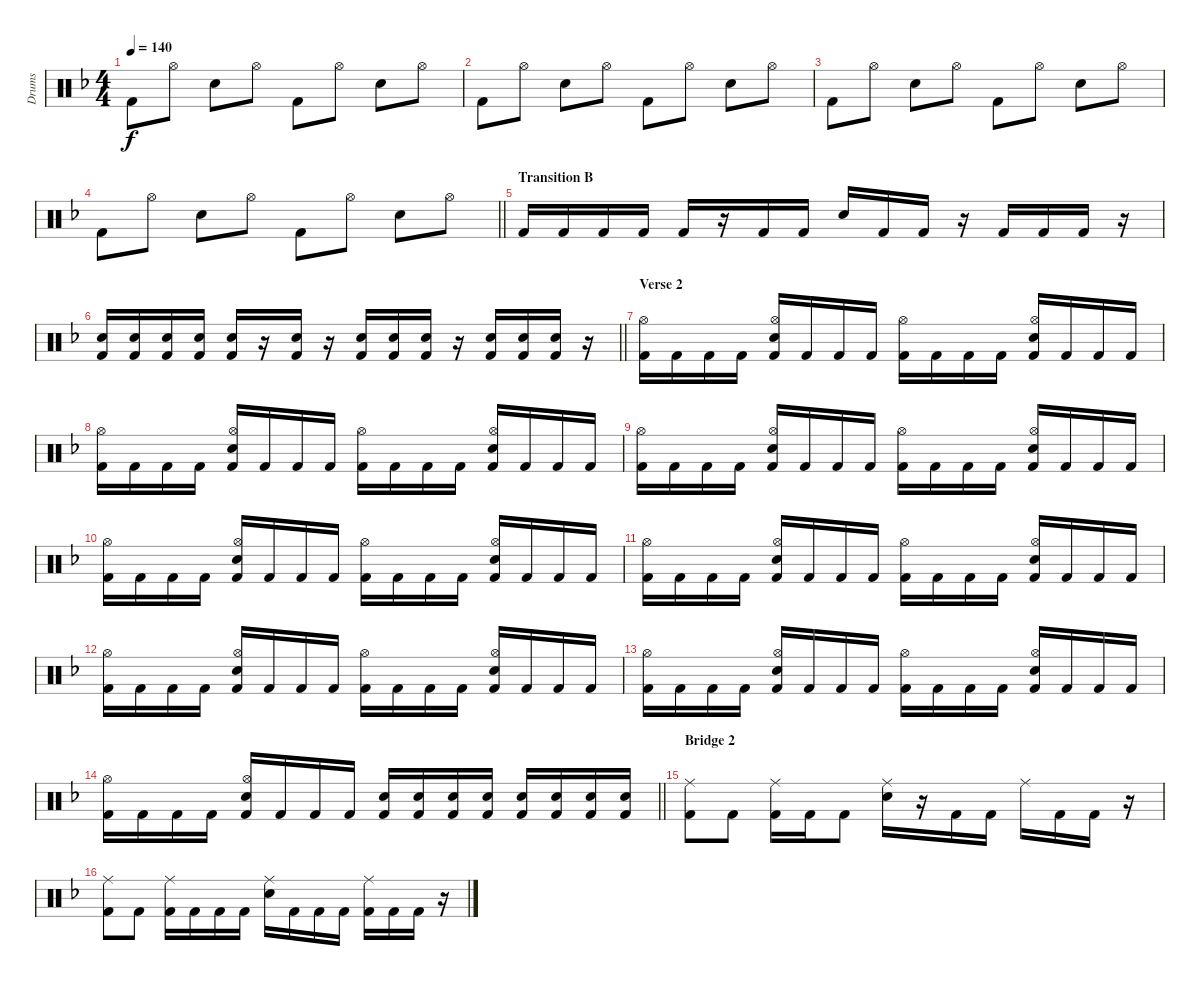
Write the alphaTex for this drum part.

\track ("Drums" "Drums") {instrument percussion}
\staff {score}
\articulation defaults
\ts (4 4)
\tempo 140
\clef neutral
\ks dminor "Kick (hit) 2".8{dy f} "Hi-Hat (open)".8 "Snare (hit) 2".8 "Hi-Hat (open)".8 "Kick (hit) 2".8 "Hi-Hat (open)".8 "Snare (hit) 2".8 "Hi-Hat (open)".8
|
"Kick (hit) 2".8 "Hi-Hat (open)".8 "Snare (hit) 2".8 "Hi-Hat (open)".8 "Kick (hit) 2".8 "Hi-Hat (open)".8 "Snare (hit) 2".8 "Hi-Hat (open)".8 |
"Kick (hit) 2".8 "Hi-Hat (open)".8 "Snare (hit) 2".8 "Hi-Hat (open)".8 "Kick (hit) 2".8 "Hi-Hat (open)".8 "Snare (hit) 2".8 "Hi-Hat (open)".8 |
\barLineRight lightlight "Kick (hit) 2".8 "Hi-Hat (open)".8 "Snare (hit) 2".8 "Hi-Hat (open)".8 "Kick (hit) 2".8 "Hi-Hat (open)".8 "Snare (hit) 2".8 "Hi-Hat (open)".8
|
\section ("" "Transition B")
"Kick (hit) 2".16 "Kick (hit) 2".16 "Kick (hit) 2".16 "Kick (hit) 2".16 "Kick (hit) 2".16 r.16 "Kick (hit) 2".16 "Kick (hit) 2".16 "Snare (hit) 2".16 "Kick (hit) 2".16 "Kick (hit) 2".16 r.16 "Kick (hit) 2".16 "Kick (hit) 2".16 "Kick (hit) 2".16 r.16 |
\barLineRight lightlight
("Snare (hit) 2" "Kick (hit) 2").16 ("Snare (hit) 2" "Kick (hit) 2").16 ("Snare (hit) 2" "Kick (hit) 2").16 ("Snare (hit) 2" "Kick (hit) 2").16 ("Snare (hit) 2" "Kick (hit) 2").16 r.16 ("Snare (hit) 2" "Kick (hit) 2").16 r.16 ("Snare (hit) 2" "Kick (hit) 2").16 ("Snare (hit) 2" "Kick (hit) 2").16 ("Snare (hit) 2" "Kick (hit) 2").16 r.16 ("Snare (hit) 2" "Kick (hit) 2").16 ("Snare (hit) 2" "Kick (hit) 2").16 ("Snare (hit) 2" "Kick (hit) 2").16 r.16 |
\section ("" "Verse 2")
("Hi-Hat (open)" "Kick (hit) 2").16 "Kick (hit) 2".16 "Kick (hit) 2".16 "Kick (hit) 2".16 ("Hi-Hat (open)" "Snare (hit) 2" "Kick (hit) 2").16 "Kick (hit) 2".16 "Kick (hit) 2".16 "Kick (hit) 2".16 ("Hi-Hat (open)" "Kick (hit) 2").16 "Kick (hit) 2".16 "Kick (hit) 2".16 "Kick (hit) 2".16 ("Hi-Hat (open)" "Snare (hit) 2" "Kick (hit) 2").16 "Kick (hit) 2".16 "Kick (hit) 2".16 "Kick (hit) 2".16 |
("Hi-Hat (open)" "Kick (hit) 2").16 "Kick (hit) 2".16 "Kick (hit) 2".16 "Kick (hit) 2".16 ("Hi-Hat (open)" "Snare (hit) 2" "Kick (hit) 2").16 "Kick (hit) 2".16 "Kick (hit) 2".16 "Kick (hit) 2".16 ("Hi-Hat (open)" "Kick (hit) 2").16 "Kick (hit) 2".16 "Kick (hit) 2".16 "Kick (hit) 2".16 ("Hi-Hat (open)" "Snare (hit) 2" "Kick (hit) 2").16 "Kick (hit) 2".16 "Kick (hit) 2".16 "Kick (hit) 2".16 |
("Hi-Hat (open)" "Kick (hit) 2").16 "Kick (hit) 2".16 "Kick (hit) 2".16 "Kick (hit) 2".16 ("Hi-Hat (open)" "Snare (hit) 2" "Kick (hit) 2").16 "Kick (hit) 2".16 "Kick (hit) 2".16 "Kick (hit) 2".16 ("Hi-Hat (open)" "Kick (hit) 2").16 "Kick (hit) 2".16 "Kick (hit) 2".16 "Kick (hit) 2".16 ("Hi-Hat (open)" "Snare (hit) 2" "Kick (hit) 2").16 "Kick (hit) 2".16 "Kick (hit) 2".16 "Kick (hit) 2".16 |
("Hi-Hat (open)" "Kick (hit) 2").16 "Kick (hit) 2".16 "Kick (hit) 2".16 "Kick (hit) 2".16 ("Hi-Hat (open)" "Snare (hit) 2" "Kick (hit) 2").16 "Kick (hit) 2".16 "Kick (hit) 2".16 "Kick (hit) 2".16 ("Hi-Hat (open)" "Kick (hit) 2").16 "Kick (hit) 2".16 "Kick (hit) 2".16 "Kick (hit) 2".16 ("Hi-Hat (open)" "Snare (hit) 2" "Kick (hit) 2").16 "Kick (hit) 2".16 "Kick (hit) 2".16 "Kick (hit) 2".16 |
("Hi-Hat (open)" "Kick (hit) 2").16 "Kick (hit) 2".16 "Kick (hit) 2".16 "Kick (hit) 2".16 ("Hi-Hat (open)" "Snare (hit) 2" "Kick (hit) 2").16 "Kick (hit) 2".16 "Kick (hit) 2".16 "Kick (hit) 2".16 ("Hi-Hat (open)" "Kick (hit) 2").16 "Kick (hit) 2".16 "Kick (hit) 2".16 "Kick (hit) 2".16 ("Hi-Hat (open)" "Snare (hit) 2" "Kick (hit) 2").16 "Kick (hit) 2".16 "Kick (hit) 2".16 "Kick (hit) 2".16 |
("Hi-Hat (open)" "Kick (hit) 2").16 "Kick (hit) 2".16 "Kick (hit) 2".16 "Kick (hit) 2".16 ("Hi-Hat (open)" "Snare (hit) 2" "Kick (hit) 2").16 "Kick (hit) 2".16 "Kick (hit) 2".16 "Kick (hit) 2".16 ("Hi-Hat (open)" "Kick (hit) 2").16 "Kick (hit) 2".16 "Kick (hit) 2".16 "Kick (hit) 2".16 ("Hi-Hat (open)" "Snare (hit) 2" "Kick (hit) 2").16 "Kick (hit) 2".16 "Kick (hit) 2".16 "Kick (hit) 2".16 |
("Hi-Hat (open)" "Kick (hit) 2").16 "Kick (hit) 2".16 "Kick (hit) 2".16 "Kick (hit) 2".16 ("Hi-Hat (open)" "Snare (hit) 2" "Kick (hit) 2").16 "Kick (hit) 2".16 "Kick (hit) 2".16 "Kick (hit) 2".16 ("Hi-Hat (open)" "Kick (hit) 2").16 "Kick (hit) 2".16 "Kick (hit) 2".16 "Kick (hit) 2".16 ("Hi-Hat (open)" "Snare (hit) 2" "Kick (hit) 2").16 "Kick (hit) 2".16 "Kick (hit) 2".16 "Kick (hit) 2".16 |
\barLineRight lightlight
("Hi-Hat (open)" "Kick (hit) 2").16 "Kick (hit) 2".16 "Kick (hit) 2".16 "Kick (hit) 2".16 ("Hi-Hat (open)" "Snare (hit) 2" "Kick (hit) 2").16 "Kick (hit) 2".16 "Kick (hit) 2".16 "Kick (hit) 2".16 ("Snare (hit) 2" "Kick (hit) 2").16 ("Snare (hit) 2" "Kick (hit) 2").16 ("Snare (hit) 2" "Kick (hit) 2").16 ("Snare (hit) 2" "Kick (hit) 2").16 ("Snare (hit) 2" "Kick (hit) 2").16 ("Snare (hit) 2" "Kick (hit) 2").16 ("Snare (hit) 2" "Kick (hit) 2").16 ("Snare (hit) 2" "Kick (hit) 2").16 |
\section ("" "Bridge 2")
("Ride (middle)" "Kick (hit) 2").8 "Kick (hit) 2".8 ("Ride (middle)" "Kick (hit) 2").16 "Kick (hit) 2".16 "Kick (hit) 2".8 ("Ride (middle)" "Snare (hit) 2").16 r.16 "Kick (hit) 2".16 "Kick (hit) 2".16 "Ride (middle)".16 "Kick (hit) 2".16 "Kick (hit) 2".16 r.16 |
("Ride (middle)" "Kick (hit) 2").8 "Kick (hit) 2".8 ("Ride (middle)" "Kick (hit) 2").16 "Kick (hit) 2".16 "Kick (hit) 2".16 "Kick (hit) 2".16 ("Ride (middle)" "Snare (hit) 2").16 "Kick (hit) 2".16 "Kick (hit) 2".16 "Kick (hit) 2".16 ("Ride (middle)" "Kick (hit) 2").16 "Kick (hit) 2".16 "Kick (hit) 2".16 r.16
